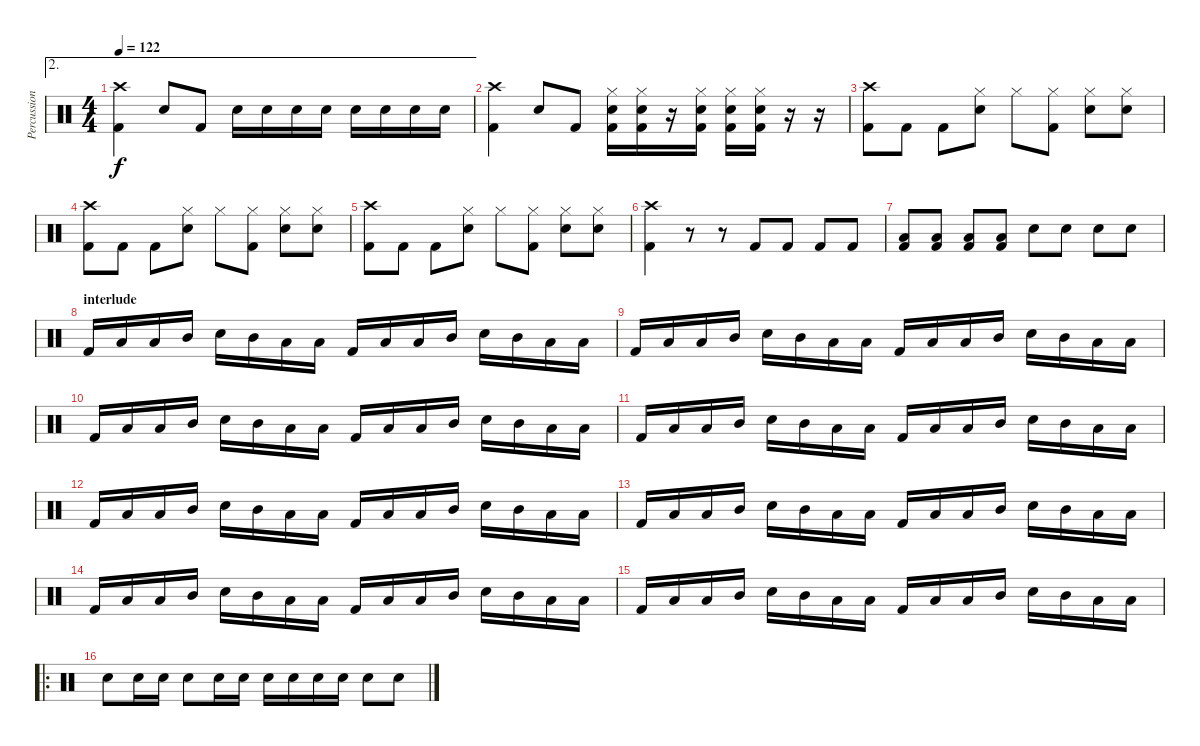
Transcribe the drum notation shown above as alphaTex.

\track ("Percussion" "Percussion") {instrument percussion}
\staff {score}
\articulation defaults
\ae 2
\ts (4 4)
\tempo 122
\clef neutral
\ks c
("Crash high (hit)" "Kick (hit) 2").4{dy f} "Electric Snare (hit)".8 "Kick (hit) 2".8 "Electric Snare (hit)".16 "Electric Snare (hit)".16 "Electric Snare (hit)".16 "Electric Snare (hit)".16 "Electric Snare (hit)".16 "Electric Snare (hit)".16 "Electric Snare (hit)".16 "Electric Snare (hit)".16 |
("Crash high (hit)" "Kick (hit) 2").4 "Electric Snare (hit)".8 "Kick (hit) 2".8 ("Hi-Hat (closed)" "Electric Snare (hit)" "Kick (hit) 2").16 ("Hi-Hat (closed)" "Electric Snare (hit)" "Kick (hit) 2").16 r.16 ("Hi-Hat (closed)" "Electric Snare (hit)" "Kick (hit) 2").16 ("Hi-Hat (closed)" "Electric Snare (hit)" "Kick (hit) 2").16 ("Hi-Hat (closed)" "Electric Snare (hit)" "Kick (hit) 2").16 r.16 r.16 |
("Crash high (hit)" "Kick (hit) 2").8 "Kick (hit) 2".8 "Kick (hit) 2".8 ("Hi-Hat (closed)" "Electric Snare (hit)").8 "Hi-Hat (closed)".8 ("Hi-Hat (closed)" "Kick (hit) 2").8 ("Hi-Hat (closed)" "Electric Snare (hit)").8 ("Hi-Hat (closed)" "Electric Snare (hit)").8 |
("Crash high (hit)" "Kick (hit) 2").8 "Kick (hit) 2".8 "Kick (hit) 2".8 ("Hi-Hat (closed)" "Electric Snare (hit)").8 "Hi-Hat (closed)".8 ("Hi-Hat (closed)" "Kick (hit) 2").8 ("Hi-Hat (closed)" "Electric Snare (hit)").8 ("Hi-Hat (closed)" "Electric Snare (hit)").8 |
("Crash high (hit)" "Kick (hit) 2").8 "Kick (hit) 2".8 "Kick (hit) 2".8 ("Hi-Hat (closed)" "Electric Snare (hit)").8 "Hi-Hat (closed)".8 ("Hi-Hat (closed)" "Kick (hit) 2").8 ("Hi-Hat (closed)" "Electric Snare (hit)").8 ("Hi-Hat (closed)" "Electric Snare (hit)").8 |
("Crash high (hit)" "Kick (hit) 2").4 r.8 r.8 "Kick (hit) 2".8 "Kick (hit) 2".8 "Kick (hit) 2".8 "Kick (hit) 2".8 |
("Low Tom (hit)" "Kick (hit) 2").8 ("Low Tom (hit)" "Kick (hit) 2").8 ("Low Tom (hit)" "Kick (hit) 2").8 ("Low Tom (hit)" "Kick (hit) 2").8 "Electric Snare (hit)".8 "Electric Snare (hit)".8 "Electric Snare (hit)".8 "Electric Snare (hit)".8 |
\section ("" "interlude")
"Kick (hit) 2".16 "Low Tom (hit)".16 "Low Tom (hit)".16 "Mid Tom (hit)".16 "Electric Snare (hit)".16 "Mid Tom (hit)".16 "Low Tom (hit)".16 "Low Tom (hit)".16 "Kick (hit) 2".16 "Low Tom (hit)".16 "Low Tom (hit)".16 "Mid Tom (hit)".16 "Electric Snare (hit)".16 "Mid Tom (hit)".16 "Low Tom (hit)".16 "Low Tom (hit)".16 |
"Kick (hit) 2".16 "Low Tom (hit)".16 "Low Tom (hit)".16 "Mid Tom (hit)".16 "Electric Snare (hit)".16 "Mid Tom (hit)".16 "Low Tom (hit)".16 "Low Tom (hit)".16 "Kick (hit) 2".16 "Low Tom (hit)".16 "Low Tom (hit)".16 "Mid Tom (hit)".16 "Electric Snare (hit)".16 "Mid Tom (hit)".16 "Low Tom (hit)".16 "Low Tom (hit)".16 |
"Kick (hit) 2".16 "Low Tom (hit)".16 "Low Tom (hit)".16 "Mid Tom (hit)".16 "Electric Snare (hit)".16 "Mid Tom (hit)".16 "Low Tom (hit)".16 "Low Tom (hit)".16 "Kick (hit) 2".16 "Low Tom (hit)".16 "Low Tom (hit)".16 "Mid Tom (hit)".16 "Electric Snare (hit)".16 "Mid Tom (hit)".16 "Low Tom (hit)".16 "Low Tom (hit)".16 |
"Kick (hit) 2".16 "Low Tom (hit)".16 "Low Tom (hit)".16 "Mid Tom (hit)".16 "Electric Snare (hit)".16 "Mid Tom (hit)".16 "Low Tom (hit)".16 "Low Tom (hit)".16 "Kick (hit) 2".16 "Low Tom (hit)".16 "Low Tom (hit)".16 "Mid Tom (hit)".16 "Electric Snare (hit)".16 "Mid Tom (hit)".16 "Low Tom (hit)".16 "Low Tom (hit)".16 |
"Kick (hit) 2".16 "Low Tom (hit)".16 "Low Tom (hit)".16 "Mid Tom (hit)".16 "Electric Snare (hit)".16 "Mid Tom (hit)".16 "Low Tom (hit)".16 "Low Tom (hit)".16 "Kick (hit) 2".16 "Low Tom (hit)".16 "Low Tom (hit)".16 "Mid Tom (hit)".16 "Electric Snare (hit)".16 "Mid Tom (hit)".16 "Low Tom (hit)".16 "Low Tom (hit)".16 |
"Kick (hit) 2".16 "Low Tom (hit)".16 "Low Tom (hit)".16 "Mid Tom (hit)".16 "Electric Snare (hit)".16 "Mid Tom (hit)".16 "Low Tom (hit)".16 "Low Tom (hit)".16 "Kick (hit) 2".16 "Low Tom (hit)".16 "Low Tom (hit)".16 "Mid Tom (hit)".16 "Electric Snare (hit)".16 "Mid Tom (hit)".16 "Low Tom (hit)".16 "Low Tom (hit)".16 |
"Kick (hit) 2".16 "Low Tom (hit)".16 "Low Tom (hit)".16 "Mid Tom (hit)".16 "Electric Snare (hit)".16 "Mid Tom (hit)".16 "Low Tom (hit)".16 "Low Tom (hit)".16 "Kick (hit) 2".16 "Low Tom (hit)".16 "Low Tom (hit)".16 "Mid Tom (hit)".16 "Electric Snare (hit)".16 "Mid Tom (hit)".16 "Low Tom (hit)".16 "Low Tom (hit)".16 |
"Kick (hit) 2".16 "Low Tom (hit)".16 "Low Tom (hit)".16 "Mid Tom (hit)".16 "Electric Snare (hit)".16 "Mid Tom (hit)".16 "Low Tom (hit)".16 "Low Tom (hit)".16 "Kick (hit) 2".16 "Low Tom (hit)".16 "Low Tom (hit)".16 "Mid Tom (hit)".16 "Electric Snare (hit)".16 "Mid Tom (hit)".16 "Low Tom (hit)".16 "Low Tom (hit)".16 |
\ro "Electric Snare (hit)".8 "Electric Snare (hit)".16 "Electric Snare (hit)".16 "Electric Snare (hit)".8 "Electric Snare (hit)".16 "Electric Snare (hit)".16 "Electric Snare (hit)".16 "Electric Snare (hit)".16 "Electric Snare (hit)".16 "Electric Snare (hit)".16 "Electric Snare (hit)".8 "Electric Snare (hit)".8
